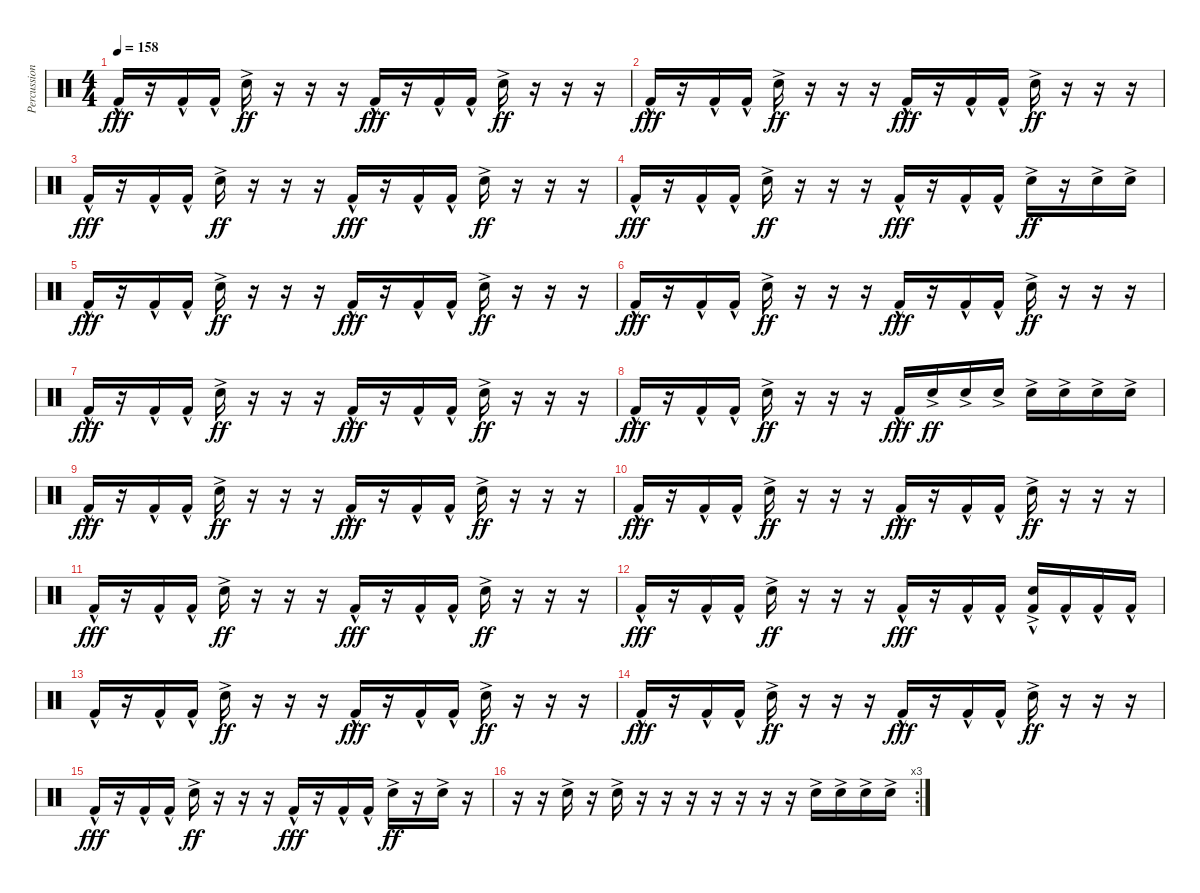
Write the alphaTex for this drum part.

\track ("Percussion" "Percussion") {instrument percussion}
\staff {score}
\articulation defaults
\ts (4 4)
\tempo 158
\clef neutral
\ks c "Kick (hit) 2"{hac}.16{dy fff}
r.16 "Kick (hit) 2"{hac}.16 "Kick (hit) 2"{hac}.16 "Snare (hit) 2"{ac}.16{dy ff} r.16 r.16 r.16 "Kick (hit) 2"{hac}.16{dy fff} r.16 "Kick (hit) 2"{hac}.16 "Kick (hit) 2"{hac}.16 "Snare (hit) 2"{ac}.16{dy ff} r.16 r.16 r.16 |
"Kick (hit) 2"{hac}.16{dy fff} r.16 "Kick (hit) 2"{hac}.16 "Kick (hit) 2"{hac}.16 "Snare (hit) 2"{ac}.16{dy ff} r.16 r.16 r.16 "Kick (hit) 2"{hac}.16{dy fff} r.16 "Kick (hit) 2"{hac}.16 "Kick (hit) 2"{hac}.16 "Snare (hit) 2"{ac}.16{dy ff} r.16 r.16 r.16 |
"Kick (hit) 2"{hac}.16{dy fff} r.16 "Kick (hit) 2"{hac}.16 "Kick (hit) 2"{hac}.16 "Snare (hit) 2"{ac}.16{dy ff} r.16 r.16 r.16 "Kick (hit) 2"{hac}.16{dy fff} r.16 "Kick (hit) 2"{hac}.16 "Kick (hit) 2"{hac}.16 "Snare (hit) 2"{ac}.16{dy ff} r.16 r.16 r.16 |
"Kick (hit) 2"{hac}.16{dy fff} r.16 "Kick (hit) 2"{hac}.16 "Kick (hit) 2"{hac}.16 "Snare (hit) 2"{ac}.16{dy ff} r.16 r.16 r.16 "Kick (hit) 2"{hac}.16{dy fff} r.16 "Kick (hit) 2"{hac}.16 "Kick (hit) 2"{hac}.16 "Snare (hit) 2"{ac}.16{dy ff} r.16 "Snare (hit) 2"{ac}.16 "Snare (hit) 2"{ac}.16 |
"Kick (hit) 2"{hac}.16{dy fff} r.16 "Kick (hit) 2"{hac}.16 "Kick (hit) 2"{hac}.16 "Snare (hit) 2"{ac}.16{dy ff} r.16 r.16 r.16 "Kick (hit) 2"{hac}.16{dy fff} r.16 "Kick (hit) 2"{hac}.16 "Kick (hit) 2"{hac}.16 "Snare (hit) 2"{ac}.16{dy ff} r.16 r.16 r.16 |
"Kick (hit) 2"{hac}.16{dy fff} r.16 "Kick (hit) 2"{hac}.16 "Kick (hit) 2"{hac}.16 "Snare (hit) 2"{ac}.16{dy ff} r.16 r.16 r.16 "Kick (hit) 2"{hac}.16{dy fff} r.16 "Kick (hit) 2"{hac}.16 "Kick (hit) 2"{hac}.16 "Snare (hit) 2"{ac}.16{dy ff} r.16 r.16 r.16 |
"Kick (hit) 2"{hac}.16{dy fff} r.16 "Kick (hit) 2"{hac}.16 "Kick (hit) 2"{hac}.16 "Snare (hit) 2"{ac}.16{dy ff} r.16 r.16 r.16 "Kick (hit) 2"{hac}.16{dy fff} r.16 "Kick (hit) 2"{hac}.16 "Kick (hit) 2"{hac}.16 "Snare (hit) 2"{ac}.16{dy ff} r.16 r.16 r.16 |
"Kick (hit) 2"{hac}.16{dy fff} r.16 "Kick (hit) 2"{hac}.16 "Kick (hit) 2"{hac}.16 "Snare (hit) 2"{ac}.16{dy ff} r.16 r.16 r.16 "Kick (hit) 2"{hac}.16{dy fff} "Snare (hit) 2"{ac}.16{dy ff} "Snare (hit) 2"{ac}.16 "Snare (hit) 2"{ac}.16 "Snare (hit) 2"{ac}.16 "Snare (hit) 2"{ac}.16 "Snare (hit) 2"{ac}.16 "Snare (hit) 2"{ac}.16 |
"Kick (hit) 2"{hac}.16{dy fff} r.16 "Kick (hit) 2"{hac}.16 "Kick (hit) 2"{hac}.16 "Snare (hit) 2"{ac}.16{dy ff} r.16 r.16 r.16 "Kick (hit) 2"{hac}.16{dy fff} r.16 "Kick (hit) 2"{hac}.16 "Kick (hit) 2"{hac}.16 "Snare (hit) 2"{ac}.16{dy ff} r.16 r.16 r.16 |
"Kick (hit) 2"{hac}.16{dy fff} r.16 "Kick (hit) 2"{hac}.16 "Kick (hit) 2"{hac}.16 "Snare (hit) 2"{ac}.16{dy ff} r.16 r.16 r.16 "Kick (hit) 2"{hac}.16{dy fff} r.16 "Kick (hit) 2"{hac}.16 "Kick (hit) 2"{hac}.16 "Snare (hit) 2"{ac}.16{dy ff} r.16 r.16 r.16 |
"Kick (hit) 2"{hac}.16{dy fff} r.16 "Kick (hit) 2"{hac}.16 "Kick (hit) 2"{hac}.16 "Snare (hit) 2"{ac}.16{dy ff} r.16 r.16 r.16 "Kick (hit) 2"{hac}.16{dy fff} r.16 "Kick (hit) 2"{hac}.16 "Kick (hit) 2"{hac}.16 "Snare (hit) 2"{ac}.16{dy ff} r.16 r.16 r.16 |
"Kick (hit) 2"{hac}.16{dy fff} r.16 "Kick (hit) 2"{hac}.16 "Kick (hit) 2"{hac}.16 "Snare (hit) 2"{ac}.16{dy ff} r.16 r.16 r.16 "Kick (hit) 2"{hac}.16{dy fff} r.16 "Kick (hit) 2"{hac}.16 "Kick (hit) 2"{hac}.16 ("Snare (hit) 2"{ac} "Kick (hit) 2"{hac}).16 "Kick (hit) 2"{hac}.16 "Kick (hit) 2"{hac}.16 "Kick (hit) 2"{hac}.16 |
"Kick (hit) 2"{hac}.16 r.16 "Kick (hit) 2"{hac}.16 "Kick (hit) 2"{hac}.16 "Snare (hit) 2"{ac}.16{dy ff} r.16 r.16 r.16 "Kick (hit) 2"{hac}.16{dy fff} r.16 "Kick (hit) 2"{hac}.16 "Kick (hit) 2"{hac}.16 "Snare (hit) 2"{ac}.16{dy ff} r.16 r.16 r.16 |
"Kick (hit) 2"{hac}.16{dy fff} r.16 "Kick (hit) 2"{hac}.16 "Kick (hit) 2"{hac}.16 "Snare (hit) 2"{ac}.16{dy ff} r.16 r.16 r.16 "Kick (hit) 2"{hac}.16{dy fff} r.16 "Kick (hit) 2"{hac}.16 "Kick (hit) 2"{hac}.16 "Snare (hit) 2"{ac}.16{dy ff} r.16 r.16 r.16 |
"Kick (hit) 2"{hac}.16{dy fff} r.16 "Kick (hit) 2"{hac}.16 "Kick (hit) 2"{hac}.16 "Snare (hit) 2"{ac}.16{dy ff} r.16 r.16 r.16 "Kick (hit) 2"{hac}.16{dy fff} r.16 "Kick (hit) 2"{hac}.16 "Kick (hit) 2"{hac}.16 "Snare (hit) 2"{ac}.16{dy ff} r.16 "Snare (hit) 2"{ac}.16 r.16 |
\rc 3
r.16 r.16 "Snare (hit) 2"{ac}.16 r.16 "Snare (hit) 2"{ac}.16 r.16 r.16 r.16 r.16 r.16 r.16 r.16 "Snare (hit) 2"{ac}.16 "Snare (hit) 2"{ac}.16 "Snare (hit) 2"{ac}.16 "Snare (hit) 2"{ac}.16
